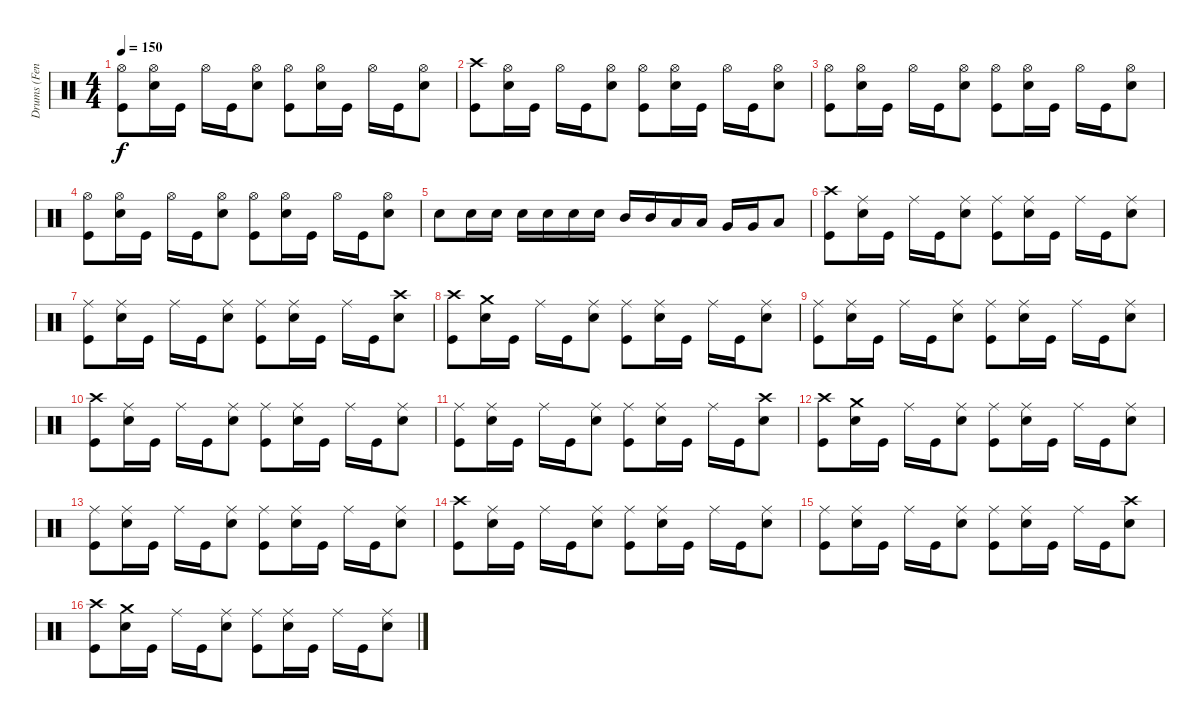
\track ("Drums (Fenriz)" "Drums (Fen") {instrument percussion}
\staff {score}
\articulation defaults
\ts (4 4)
\tempo 150
\clef neutral
\ks c
("Hi-Hat (open)" "Kick (hit)").8{dy f} ("Hi-Hat (open)" "Electric Snare (hit)").16 "Kick (hit)".16 "Hi-Hat (open)".16 "Kick (hit)".16 ("Hi-Hat (open)" "Electric Snare (hit)").8 ("Hi-Hat (open)" "Kick (hit)").8 ("Hi-Hat (open)" "Electric Snare (hit)").16 "Kick (hit)".16 "Hi-Hat (open)".16 "Kick (hit)".16 ("Hi-Hat (open)" "Electric Snare (hit)").8 |
("Crash high (hit)" "Kick (hit)").8 ("Hi-Hat (open)" "Electric Snare (hit)").16 "Kick (hit)".16 "Hi-Hat (open)".16 "Kick (hit)".16 ("Hi-Hat (open)" "Electric Snare (hit)").8 ("Hi-Hat (open)" "Kick (hit)").8 ("Hi-Hat (open)" "Electric Snare (hit)").16 "Kick (hit)".16 "Hi-Hat (open)".16 "Kick (hit)".16 ("Hi-Hat (open)" "Electric Snare (hit)").8 |
("Hi-Hat (open)" "Kick (hit)").8 ("Hi-Hat (open)" "Electric Snare (hit)").16 "Kick (hit)".16 "Hi-Hat (open)".16 "Kick (hit)".16 ("Hi-Hat (open)" "Electric Snare (hit)").8 ("Hi-Hat (open)" "Kick (hit)").8 ("Hi-Hat (open)" "Electric Snare (hit)").16 "Kick (hit)".16 "Hi-Hat (open)".16 "Kick (hit)".16 ("Hi-Hat (open)" "Electric Snare (hit)").8 |
("Hi-Hat (open)" "Kick (hit)").8 ("Hi-Hat (open)" "Electric Snare (hit)").16 "Kick (hit)".16 "Hi-Hat (open)".16 "Kick (hit)".16 ("Hi-Hat (open)" "Electric Snare (hit)").8 ("Hi-Hat (open)" "Kick (hit)").8 ("Hi-Hat (open)" "Electric Snare (hit)").16 "Kick (hit)".16 "Hi-Hat (open)".16 "Kick (hit)".16 ("Hi-Hat (open)" "Electric Snare (hit)").8 |
"Electric Snare (hit)".8 "Electric Snare (hit)".16 "Electric Snare (hit)".16 "Electric Snare (hit)".16 "Electric Snare (hit)".16 "Electric Snare (hit)".16 "Electric Snare (hit)".16 "Mid Tom (hit)".16 "Mid Tom (hit)".16 "Low Tom (hit)".16 "Low Tom (hit)".16 "Very Low Tom (hit)".16 "Very Low Tom (hit)".16 "Low Floor Tom (hit)".8 |
("Crash high (hit)" "Kick (hit)").8 ("Ride (middle)" "Electric Snare (hit)").16 "Kick (hit)".16 "Ride (middle)".16 "Kick (hit)".16 ("Ride (middle)" "Electric Snare (hit)").8 ("Ride (middle)" "Kick (hit)").8 ("Ride (middle)" "Electric Snare (hit)").16 "Kick (hit)".16 "Ride (middle)".16 "Kick (hit)".16 ("Ride (middle)" "Electric Snare (hit)").8 |
("Ride (middle)" "Kick (hit)").8 ("Ride (middle)" "Electric Snare (hit)").16 "Kick (hit)".16 "Ride (middle)".16 "Kick (hit)".16 ("Ride (middle)" "Electric Snare (hit)").8 ("Ride (middle)" "Kick (hit)").8 ("Ride (middle)" "Electric Snare (hit)").16 "Kick (hit)".16 "Ride (middle)".16 "Kick (hit)".16 ("Crash high (hit)" "Electric Snare (hit)").8 |
("Crash high (hit)" "Kick (hit)").8 ("Crash medium (hit)" "Electric Snare (hit)").16 "Kick (hit)".16 "Ride (middle)".16 "Kick (hit)".16 ("Ride (middle)" "Electric Snare (hit)").8 ("Ride (middle)" "Kick (hit)").8 ("Ride (middle)" "Electric Snare (hit)").16 "Kick (hit)".16 "Ride (middle)".16 "Kick (hit)".16 ("Ride (middle)" "Electric Snare (hit)").8 |
("Ride (middle)" "Kick (hit)").8 ("Ride (middle)" "Electric Snare (hit)").16 "Kick (hit)".16 "Ride (middle)".16 "Kick (hit)".16 ("Ride (middle)" "Electric Snare (hit)").8 ("Ride (middle)" "Kick (hit)").8 ("Ride (middle)" "Electric Snare (hit)").16 "Kick (hit)".16 "Ride (middle)".16 "Kick (hit)".16 ("Ride (middle)" "Electric Snare (hit)").8 |
("Crash high (hit)" "Kick (hit)").8 ("Ride (middle)" "Electric Snare (hit)").16 "Kick (hit)".16 "Ride (middle)".16 "Kick (hit)".16 ("Ride (middle)" "Electric Snare (hit)").8 ("Ride (middle)" "Kick (hit)").8 ("Ride (middle)" "Electric Snare (hit)").16 "Kick (hit)".16 "Ride (middle)".16 "Kick (hit)".16 ("Ride (middle)" "Electric Snare (hit)").8 |
("Ride (middle)" "Kick (hit)").8 ("Ride (middle)" "Electric Snare (hit)").16 "Kick (hit)".16 "Ride (middle)".16 "Kick (hit)".16 ("Ride (middle)" "Electric Snare (hit)").8 ("Ride (middle)" "Kick (hit)").8 ("Ride (middle)" "Electric Snare (hit)").16 "Kick (hit)".16 "Ride (middle)".16 "Kick (hit)".16 ("Crash high (hit)" "Electric Snare (hit)").8 |
("Crash high (hit)" "Kick (hit)").8 ("Crash medium (hit)" "Electric Snare (hit)").16 "Kick (hit)".16 "Ride (middle)".16 "Kick (hit)".16 ("Ride (middle)" "Electric Snare (hit)").8 ("Ride (middle)" "Kick (hit)").8 ("Ride (middle)" "Electric Snare (hit)").16 "Kick (hit)".16 "Ride (middle)".16 "Kick (hit)".16 ("Ride (middle)" "Electric Snare (hit)").8 |
("Ride (middle)" "Kick (hit)").8 ("Ride (middle)" "Electric Snare (hit)").16 "Kick (hit)".16 "Ride (middle)".16 "Kick (hit)".16 ("Ride (middle)" "Electric Snare (hit)").8 ("Ride (middle)" "Kick (hit)").8 ("Ride (middle)" "Electric Snare (hit)").16 "Kick (hit)".16 "Ride (middle)".16 "Kick (hit)".16 ("Ride (middle)" "Electric Snare (hit)").8 |
("Crash high (hit)" "Kick (hit)").8 ("Ride (middle)" "Electric Snare (hit)").16 "Kick (hit)".16 "Ride (middle)".16 "Kick (hit)".16 ("Ride (middle)" "Electric Snare (hit)").8 ("Ride (middle)" "Kick (hit)").8 ("Ride (middle)" "Electric Snare (hit)").16 "Kick (hit)".16 "Ride (middle)".16 "Kick (hit)".16 ("Ride (middle)" "Electric Snare (hit)").8 |
("Ride (middle)" "Kick (hit)").8 ("Ride (middle)" "Electric Snare (hit)").16 "Kick (hit)".16 "Ride (middle)".16 "Kick (hit)".16 ("Ride (middle)" "Electric Snare (hit)").8 ("Ride (middle)" "Kick (hit)").8 ("Ride (middle)" "Electric Snare (hit)").16 "Kick (hit)".16 "Ride (middle)".16 "Kick (hit)".16 ("Crash high (hit)" "Electric Snare (hit)").8 |
("Crash high (hit)" "Kick (hit)").8 ("Crash medium (hit)" "Electric Snare (hit)").16 "Kick (hit)".16 "Ride (middle)".16 "Kick (hit)".16 ("Ride (middle)" "Electric Snare (hit)").8 ("Ride (middle)" "Kick (hit)").8 ("Ride (middle)" "Electric Snare (hit)").16 "Kick (hit)".16 "Ride (middle)".16 "Kick (hit)".16 ("Ride (middle)" "Electric Snare (hit)").8
